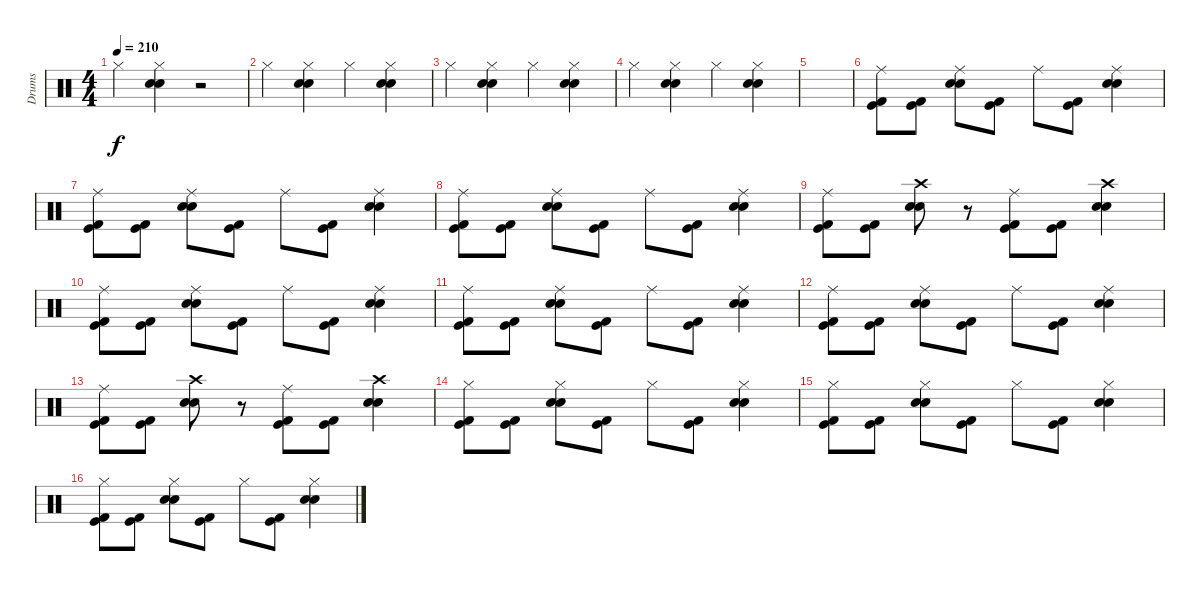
\track ("Drums" "Drums") {instrument percussion}
\staff {score}
\articulation defaults
\ts (4 4)
\tempo 210
\clef neutral
\ks c "Hi-Hat (closed)".4{dy f}
("Hi-Hat (closed)" "Electric Snare (hit)" "Snare (hit) 2").4 r.2 |
"Hi-Hat (closed)".4 ("Hi-Hat (closed)" "Electric Snare (hit)" "Snare (hit) 2").4 "Hi-Hat (closed)".4 ("Hi-Hat (closed)" "Electric Snare (hit)" "Snare (hit) 2").4 |
"Hi-Hat (closed)".4 ("Hi-Hat (closed)" "Electric Snare (hit)" "Snare (hit) 2").4 "Hi-Hat (closed)".4 ("Hi-Hat (closed)" "Electric Snare (hit)" "Snare (hit) 2").4 |
"Hi-Hat (closed)".4 ("Hi-Hat (closed)" "Electric Snare (hit)" "Snare (hit) 2").4 "Hi-Hat (closed)".4 ("Hi-Hat (closed)" "Electric Snare (hit)" "Snare (hit) 2").4 |
|
("Ride (middle)" "Kick (hit) 2" "Kick (hit)").8 ("Kick (hit) 2" "Kick (hit)").8 ("Ride (middle)" "Electric Snare (hit)" "Snare (hit) 2").8 ("Kick (hit) 2" "Kick (hit)").8 "Ride (middle)".8 ("Kick (hit) 2" "Kick (hit)").8 ("Ride (middle)" "Electric Snare (hit)" "Snare (hit) 2").4 |
("Ride (middle)" "Kick (hit) 2" "Kick (hit)").8 ("Kick (hit) 2" "Kick (hit)").8 ("Ride (middle)" "Electric Snare (hit)" "Snare (hit) 2").8 ("Kick (hit) 2" "Kick (hit)").8 "Ride (middle)".8 ("Kick (hit) 2" "Kick (hit)").8 ("Ride (middle)" "Electric Snare (hit)" "Snare (hit) 2").4 |
("Ride (middle)" "Kick (hit) 2" "Kick (hit)").8 ("Kick (hit) 2" "Kick (hit)").8 ("Ride (middle)" "Electric Snare (hit)" "Snare (hit) 2").8 ("Kick (hit) 2" "Kick (hit)").8 "Ride (middle)".8 ("Kick (hit) 2" "Kick (hit)").8 ("Ride (middle)" "Electric Snare (hit)" "Snare (hit) 2").4 |
("Ride (middle)" "Kick (hit) 2" "Kick (hit)").8 ("Kick (hit) 2" "Kick (hit)").8 ("Crash high (hit)" "Electric Snare (hit)" "Snare (hit) 2").8 r.8 ("Ride (middle)" "Kick (hit) 2" "Kick (hit)").8 ("Kick (hit) 2" "Kick (hit)").8 ("Crash high (hit)" "Electric Snare (hit)" "Snare (hit) 2").4 |
("Ride (middle)" "Kick (hit) 2" "Kick (hit)").8 ("Kick (hit) 2" "Kick (hit)").8 ("Ride (middle)" "Electric Snare (hit)" "Snare (hit) 2").8 ("Kick (hit) 2" "Kick (hit)").8 "Ride (middle)".8 ("Kick (hit) 2" "Kick (hit)").8 ("Ride (middle)" "Electric Snare (hit)" "Snare (hit) 2").4 |
("Ride (middle)" "Kick (hit) 2" "Kick (hit)").8 ("Kick (hit) 2" "Kick (hit)").8 ("Ride (middle)" "Electric Snare (hit)" "Snare (hit) 2").8 ("Kick (hit) 2" "Kick (hit)").8 "Ride (middle)".8 ("Kick (hit) 2" "Kick (hit)").8 ("Ride (middle)" "Electric Snare (hit)" "Snare (hit) 2").4 |
("Ride (middle)" "Kick (hit) 2" "Kick (hit)").8 ("Kick (hit) 2" "Kick (hit)").8 ("Ride (middle)" "Electric Snare (hit)" "Snare (hit) 2").8 ("Kick (hit) 2" "Kick (hit)").8 "Ride (middle)".8 ("Kick (hit) 2" "Kick (hit)").8 ("Ride (middle)" "Electric Snare (hit)" "Snare (hit) 2").4 |
("Ride (middle)" "Kick (hit) 2" "Kick (hit)").8 ("Kick (hit) 2" "Kick (hit)").8 ("Crash high (hit)" "Electric Snare (hit)" "Snare (hit) 2").8 r.8 ("Ride (middle)" "Kick (hit) 2" "Kick (hit)").8 ("Kick (hit) 2" "Kick (hit)").8 ("Crash high (hit)" "Electric Snare (hit)" "Snare (hit) 2").4 |
("Hi-Hat (closed)" "Kick (hit) 2" "Kick (hit)").8 ("Kick (hit) 2" "Kick (hit)").8 ("Hi-Hat (closed)" "Electric Snare (hit)" "Snare (hit) 2").8 ("Kick (hit) 2" "Kick (hit)").8 "Hi-Hat (closed)".8 ("Kick (hit) 2" "Kick (hit)").8 ("Hi-Hat (closed)" "Electric Snare (hit)" "Snare (hit) 2").4 |
("Hi-Hat (closed)" "Kick (hit) 2" "Kick (hit)").8 ("Kick (hit) 2" "Kick (hit)").8 ("Hi-Hat (closed)" "Electric Snare (hit)" "Snare (hit) 2").8 ("Kick (hit) 2" "Kick (hit)").8 "Hi-Hat (closed)".8 ("Kick (hit) 2" "Kick (hit)").8 ("Hi-Hat (closed)" "Electric Snare (hit)" "Snare (hit) 2").4 |
("Hi-Hat (closed)" "Kick (hit) 2" "Kick (hit)").8 ("Kick (hit) 2" "Kick (hit)").8 ("Hi-Hat (closed)" "Electric Snare (hit)" "Snare (hit) 2").8 ("Kick (hit) 2" "Kick (hit)").8 "Hi-Hat (closed)".8 ("Kick (hit) 2" "Kick (hit)").8 ("Hi-Hat (closed)" "Electric Snare (hit)" "Snare (hit) 2").4
